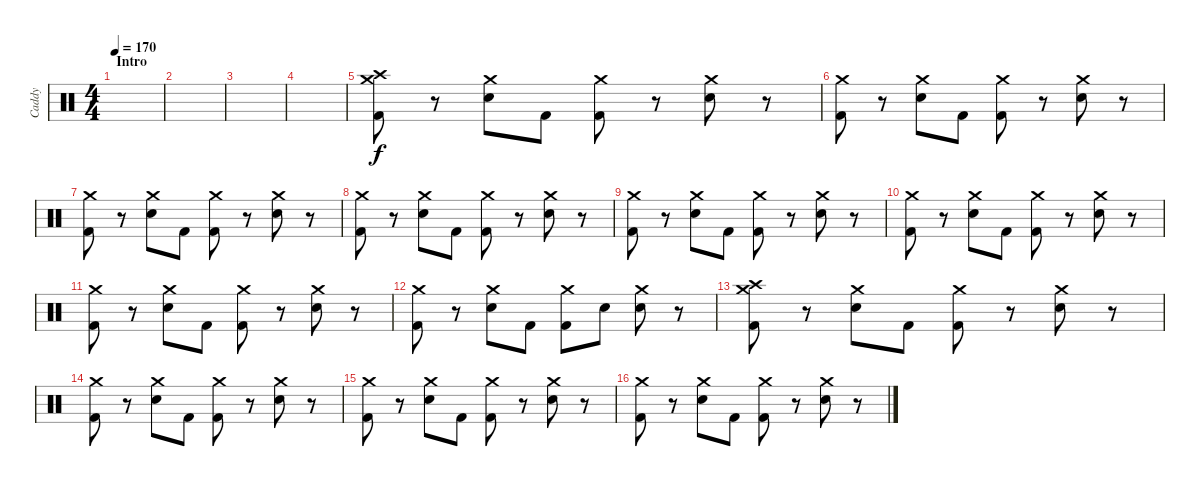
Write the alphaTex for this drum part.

\track ("Caddy" "Caddy") {instrument percussion}
\staff {score}
\articulation defaults
\ts (4 4)
\section ("" "Intro")
\tempo 170
\clef neutral
\ks c
|
|
|
|
("Crash medium (hit)" "Crash high (hit)" "Kick (hit) 2").8 r.8 ("Crash medium (hit)" "Electric Snare (hit)").8 "Kick (hit) 2".8 ("Crash medium (hit)" "Kick (hit) 2").8 r.8 ("Crash medium (hit)" "Electric Snare (hit)").8 r.8 |
("Crash medium (hit)" "Kick (hit) 2").8 r.8 ("Crash medium (hit)" "Electric Snare (hit)").8 "Kick (hit) 2".8 ("Crash medium (hit)" "Kick (hit) 2").8 r.8 ("Crash medium (hit)" "Electric Snare (hit)").8 r.8 |
("Crash medium (hit)" "Kick (hit) 2").8 r.8 ("Crash medium (hit)" "Electric Snare (hit)").8 "Kick (hit) 2".8 ("Crash medium (hit)" "Kick (hit) 2").8 r.8 ("Crash medium (hit)" "Electric Snare (hit)").8 r.8 |
("Crash medium (hit)" "Kick (hit) 2").8 r.8 ("Crash medium (hit)" "Electric Snare (hit)").8 "Kick (hit) 2".8 ("Crash medium (hit)" "Kick (hit) 2").8 r.8 ("Crash medium (hit)" "Electric Snare (hit)").8 r.8 |
("Crash medium (hit)" "Kick (hit) 2").8 r.8 ("Crash medium (hit)" "Electric Snare (hit)").8 "Kick (hit) 2".8 ("Crash medium (hit)" "Kick (hit) 2").8 r.8 ("Crash medium (hit)" "Electric Snare (hit)").8 r.8 |
("Crash medium (hit)" "Kick (hit) 2").8 r.8 ("Crash medium (hit)" "Electric Snare (hit)").8 "Kick (hit) 2".8 ("Crash medium (hit)" "Kick (hit) 2").8 r.8 ("Crash medium (hit)" "Electric Snare (hit)").8 r.8 |
("Crash medium (hit)" "Kick (hit) 2").8 r.8 ("Crash medium (hit)" "Electric Snare (hit)").8 "Kick (hit) 2".8 ("Crash medium (hit)" "Kick (hit) 2").8 r.8 ("Crash medium (hit)" "Electric Snare (hit)").8 r.8 |
("Crash medium (hit)" "Kick (hit) 2").8 r.8 ("Crash medium (hit)" "Electric Snare (hit)").8 "Kick (hit) 2".8 ("Crash medium (hit)" "Kick (hit) 2").8 "Electric Snare (hit)".8 ("Crash medium (hit)" "Electric Snare (hit)").8 r.8 |
("Crash medium (hit)" "Crash high (hit)" "Kick (hit) 2").8 r.8 ("Crash medium (hit)" "Electric Snare (hit)").8 "Kick (hit) 2".8 ("Crash medium (hit)" "Kick (hit) 2").8 r.8 ("Crash medium (hit)" "Electric Snare (hit)").8 r.8 |
("Crash medium (hit)" "Kick (hit) 2").8 r.8 ("Crash medium (hit)" "Electric Snare (hit)").8 "Kick (hit) 2".8 ("Crash medium (hit)" "Kick (hit) 2").8 r.8 ("Crash medium (hit)" "Electric Snare (hit)").8 r.8 |
("Crash medium (hit)" "Kick (hit) 2").8 r.8 ("Crash medium (hit)" "Electric Snare (hit)").8 "Kick (hit) 2".8 ("Crash medium (hit)" "Kick (hit) 2").8 r.8 ("Crash medium (hit)" "Electric Snare (hit)").8 r.8 |
("Crash medium (hit)" "Kick (hit) 2").8 r.8 ("Crash medium (hit)" "Electric Snare (hit)").8 "Kick (hit) 2".8 ("Crash medium (hit)" "Kick (hit) 2").8 r.8 ("Crash medium (hit)" "Electric Snare (hit)").8 r.8
